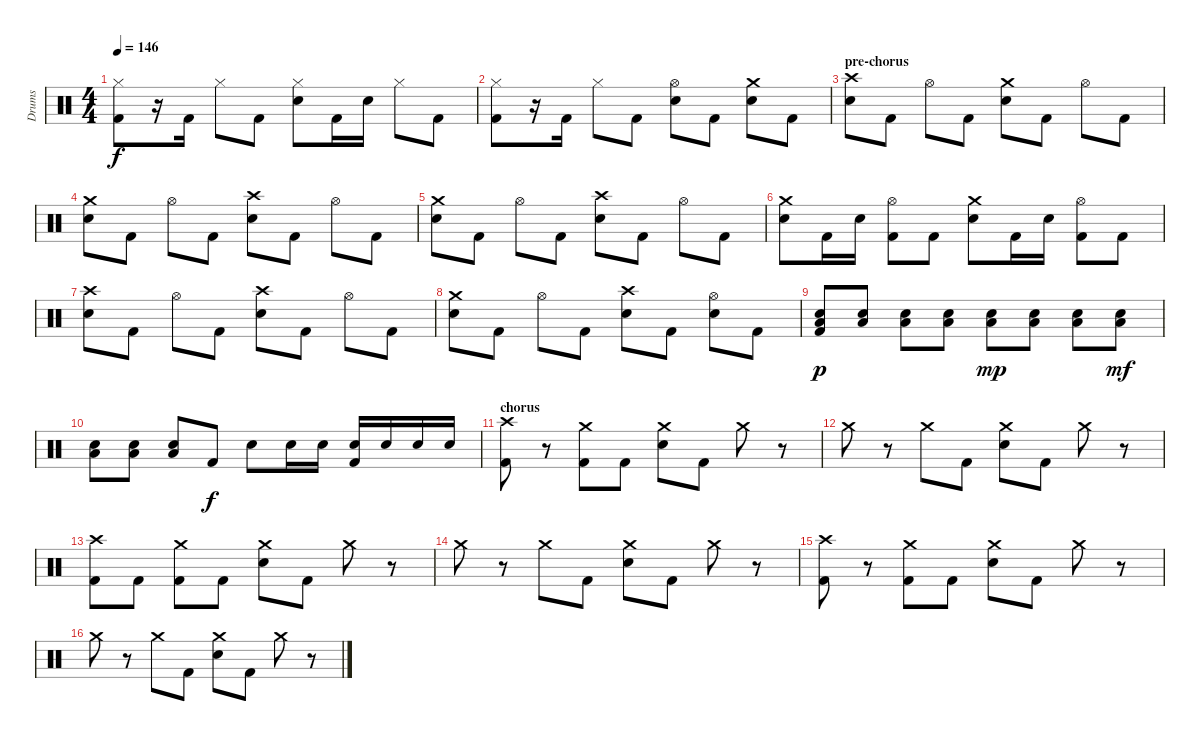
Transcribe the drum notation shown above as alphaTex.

\track ("Drums" "Drums") {instrument percussion}
\staff {score}
\articulation defaults
\ts (4 4)
\tempo 146
\clef neutral
\ks c
("Hi-Hat (closed)" "Kick (hit) 2").8{dy f} r.16 "Kick (hit) 2".16 "Hi-Hat (closed)".8 "Kick (hit) 2".8 ("Hi-Hat (closed)" "Electric Snare (hit)").8 "Kick (hit) 2".16 "Electric Snare (hit)".16 "Hi-Hat (closed)".8 "Kick (hit) 2".8 |
("Hi-Hat (closed)" "Kick (hit) 2").8 r.16 "Kick (hit) 2".16 "Hi-Hat (closed)".8 "Kick (hit) 2".8 ("Hi-Hat (open)" "Electric Snare (hit)").8 "Kick (hit) 2".8 ("Crash medium (hit)" "Electric Snare (hit)").8 "Kick (hit) 2".8 |
\section ("" "pre-chorus")
("Crash high (hit)" "Electric Snare (hit)").8 "Kick (hit) 2".8 "Hi-Hat (open)".8 "Kick (hit) 2".8 ("Crash medium (hit)" "Electric Snare (hit)").8 "Kick (hit) 2".8 "Hi-Hat (open)".8 "Kick (hit) 2".8 |
("Crash medium (hit)" "Electric Snare (hit)").8 "Kick (hit) 2".8 "Hi-Hat (open)".8 "Kick (hit) 2".8 ("Crash high (hit)" "Electric Snare (hit)").8 "Kick (hit) 2".8 "Hi-Hat (open)".8 "Kick (hit) 2".8 |
("Crash medium (hit)" "Electric Snare (hit)").8 "Kick (hit) 2".8 "Hi-Hat (open)".8 "Kick (hit) 2".8 ("Crash high (hit)" "Electric Snare (hit)").8 "Kick (hit) 2".8 "Hi-Hat (open)".8 "Kick (hit) 2".8 |
("Crash medium (hit)" "Electric Snare (hit)").8 "Kick (hit) 2".16 "Electric Snare (hit)".16 ("Hi-Hat (open)" "Kick (hit) 2").8 "Kick (hit) 2".8 ("Crash medium (hit)" "Electric Snare (hit)").8 "Kick (hit) 2".16 "Electric Snare (hit)".16 ("Hi-Hat (open)" "Kick (hit) 2").8 "Kick (hit) 2".8 |
("Crash high (hit)" "Electric Snare (hit)").8 "Kick (hit) 2".8 "Hi-Hat (open)".8 "Kick (hit) 2".8 ("Crash high (hit)" "Electric Snare (hit)").8 "Kick (hit) 2".8 "Hi-Hat (open)".8 "Kick (hit) 2".8 |
("Crash medium (hit)" "Electric Snare (hit)").8 "Kick (hit) 2".8 "Hi-Hat (open)".8 "Kick (hit) 2".8 ("Crash high (hit)" "Electric Snare (hit)").8 "Kick (hit) 2".8 ("Hi-Hat (open)" "Electric Snare (hit)").8 "Kick (hit) 2".8 |
("Electric Snare (hit)" "Low Floor Tom (hit)" "Kick (hit) 2").8{dy p} ("Electric Snare (hit)" "Low Floor Tom (hit)").8 ("Electric Snare (hit)" "Low Floor Tom (hit)").8 ("Electric Snare (hit)" "Low Floor Tom (hit)").8 ("Electric Snare (hit)" "Low Floor Tom (hit)").8{dy mp} ("Electric Snare (hit)" "Low Floor Tom (hit)").8 ("Electric Snare (hit)" "Low Floor Tom (hit)").8 ("Electric Snare (hit)" "Low Floor Tom (hit)").8{dy mf} |
("Electric Snare (hit)" "Low Floor Tom (hit)").8 ("Electric Snare (hit)" "Low Floor Tom (hit)").8 ("Electric Snare (hit)" "Low Floor Tom (hit)").8 "Kick (hit) 2".8{dy f} "Electric Snare (hit)".8 "Electric Snare (hit)".16 "Electric Snare (hit)".16 ("Electric Snare (hit)" "Kick (hit) 2").16 "Electric Snare (hit)".16 "Electric Snare (hit)".16 "Electric Snare (hit)".16 |
\section ("" "chorus")
("Crash high (hit)" "Kick (hit) 2").8 r.8 ("Crash medium (hit)" "Kick (hit) 2").8 "Kick (hit) 2".8 ("Crash medium (hit)" "Electric Snare (hit)").8 "Kick (hit) 2".8 "Crash medium (hit)".8 r.8 |
"Crash medium (hit)".8 r.8 "Crash medium (hit)".8 "Kick (hit) 2".8 ("Crash medium (hit)" "Electric Snare (hit)").8 "Kick (hit) 2".8 "Crash medium (hit)".8 r.8 |
("Crash high (hit)" "Kick (hit) 2").8 "Kick (hit) 2".8 ("Crash medium (hit)" "Kick (hit) 2").8 "Kick (hit) 2".8 ("Crash medium (hit)" "Electric Snare (hit)").8 "Kick (hit) 2".8 "Crash medium (hit)".8 r.8 |
"Crash medium (hit)".8 r.8 "Crash medium (hit)".8 "Kick (hit) 2".8 ("Crash medium (hit)" "Electric Snare (hit)").8 "Kick (hit) 2".8 "Crash medium (hit)".8 r.8 |
("Crash high (hit)" "Kick (hit) 2").8 r.8 ("Crash medium (hit)" "Kick (hit) 2").8 "Kick (hit) 2".8 ("Crash medium (hit)" "Electric Snare (hit)").8 "Kick (hit) 2".8 "Crash medium (hit)".8 r.8 |
"Crash medium (hit)".8 r.8 "Crash medium (hit)".8 "Kick (hit) 2".8 ("Crash medium (hit)" "Electric Snare (hit)").8 "Kick (hit) 2".8 "Crash medium (hit)".8 r.8
